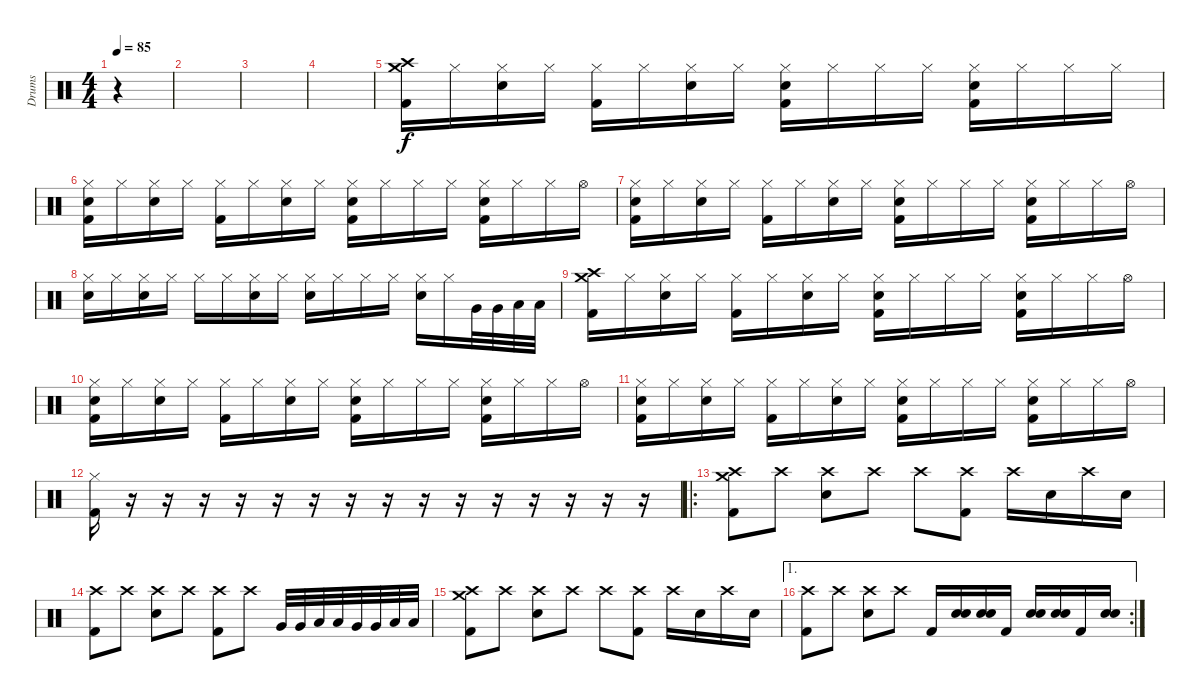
\track ("Drums" "Drums") {instrument percussion}
\staff {score}
\articulation defaults
\ts (4 4)
\tempo 85
\clef neutral
\ks c
r.4{dy f} |
|
|
|
("Crash high (hit)" "Crash medium (hit)" "Kick (hit) 2").16 "Hi-Hat (closed)".16 ("Hi-Hat (closed)" "Electric Snare (hit)").16 "Hi-Hat (closed)".16 ("Hi-Hat (closed)" "Kick (hit) 2").16 "Hi-Hat (closed)".16 ("Hi-Hat (closed)" "Electric Snare (hit)").16 "Hi-Hat (closed)".16 ("Hi-Hat (closed)" "Electric Snare (hit)" "Kick (hit) 2").16 "Hi-Hat (closed)".16 "Hi-Hat (closed)".16 "Hi-Hat (closed)".16 ("Hi-Hat (closed)" "Electric Snare (hit)" "Kick (hit) 2").16 "Hi-Hat (closed)".16 "Hi-Hat (closed)".16 "Hi-Hat (closed)".16 |
("Hi-Hat (closed)" "Electric Snare (hit)" "Kick (hit) 2").16 "Hi-Hat (closed)".16 ("Hi-Hat (closed)" "Electric Snare (hit)").16 "Hi-Hat (closed)".16 ("Hi-Hat (closed)" "Kick (hit) 2").16 "Hi-Hat (closed)".16 ("Hi-Hat (closed)" "Electric Snare (hit)").16 "Hi-Hat (closed)".16 ("Hi-Hat (closed)" "Electric Snare (hit)" "Kick (hit) 2").16 "Hi-Hat (closed)".16 "Hi-Hat (closed)".16 "Hi-Hat (closed)".16 ("Hi-Hat (closed)" "Electric Snare (hit)" "Kick (hit) 2").16 "Hi-Hat (closed)".16 "Hi-Hat (closed)".16 "Hi-Hat (open)".16 |
("Hi-Hat (closed)" "Electric Snare (hit)" "Kick (hit) 2").16 "Hi-Hat (closed)".16 ("Hi-Hat (closed)" "Electric Snare (hit)").16 "Hi-Hat (closed)".16 ("Hi-Hat (closed)" "Kick (hit) 2").16 "Hi-Hat (closed)".16 ("Hi-Hat (closed)" "Electric Snare (hit)").16 "Hi-Hat (closed)".16 ("Hi-Hat (closed)" "Electric Snare (hit)" "Kick (hit) 2").16 "Hi-Hat (closed)".16 "Hi-Hat (closed)".16 "Hi-Hat (closed)".16 ("Hi-Hat (closed)" "Electric Snare (hit)" "Kick (hit) 2").16 "Hi-Hat (closed)".16 "Hi-Hat (closed)".16 "Hi-Hat (open)".16 |
("Hi-Hat (closed)" "Electric Snare (hit)").16 "Hi-Hat (closed)".16 ("Hi-Hat (closed)" "Electric Snare (hit)").16 "Hi-Hat (closed)".16 "Hi-Hat (closed)".16 "Hi-Hat (closed)".16 ("Hi-Hat (closed)" "Electric Snare (hit)").16 "Hi-Hat (closed)".16 ("Hi-Hat (closed)" "Electric Snare (hit)").16 "Hi-Hat (closed)".16 "Hi-Hat (closed)".16 "Hi-Hat (closed)".16 ("Hi-Hat (closed)" "Electric Snare (hit)").16 "Hi-Hat (closed)".16 "Very Low Tom (hit)".32 "Very Low Tom (hit)".32 "Low Tom (hit)".32 "Low Tom (hit)".32 |
("Crash high (hit)" "Crash medium (hit)" "Kick (hit) 2").16 "Hi-Hat (closed)".16 ("Hi-Hat (closed)" "Electric Snare (hit)").16 "Hi-Hat (closed)".16 ("Hi-Hat (closed)" "Kick (hit) 2").16 "Hi-Hat (closed)".16 ("Hi-Hat (closed)" "Electric Snare (hit)").16 "Hi-Hat (closed)".16 ("Hi-Hat (closed)" "Electric Snare (hit)" "Kick (hit) 2").16 "Hi-Hat (closed)".16 "Hi-Hat (closed)".16 "Hi-Hat (closed)".16 ("Hi-Hat (closed)" "Electric Snare (hit)" "Kick (hit) 2").16 "Hi-Hat (closed)".16 "Hi-Hat (closed)".16 "Hi-Hat (open)".16 |
("Hi-Hat (closed)" "Electric Snare (hit)" "Kick (hit) 2").16 "Hi-Hat (closed)".16 ("Hi-Hat (closed)" "Electric Snare (hit)").16 "Hi-Hat (closed)".16 ("Hi-Hat (closed)" "Kick (hit) 2").16 "Hi-Hat (closed)".16 ("Hi-Hat (closed)" "Electric Snare (hit)").16 "Hi-Hat (closed)".16 ("Hi-Hat (closed)" "Electric Snare (hit)" "Kick (hit) 2").16 "Hi-Hat (closed)".16 "Hi-Hat (closed)".16 "Hi-Hat (closed)".16 ("Hi-Hat (closed)" "Electric Snare (hit)" "Kick (hit) 2").16 "Hi-Hat (closed)".16 "Hi-Hat (closed)".16 "Hi-Hat (open)".16 |
("Hi-Hat (closed)" "Electric Snare (hit)" "Kick (hit) 2").16 "Hi-Hat (closed)".16 ("Hi-Hat (closed)" "Electric Snare (hit)").16 "Hi-Hat (closed)".16 ("Hi-Hat (closed)" "Kick (hit) 2").16 "Hi-Hat (closed)".16 ("Hi-Hat (closed)" "Electric Snare (hit)").16 "Hi-Hat (closed)".16 ("Hi-Hat (closed)" "Electric Snare (hit)" "Kick (hit) 2").16 "Hi-Hat (closed)".16 "Hi-Hat (closed)".16 "Hi-Hat (closed)".16 ("Hi-Hat (closed)" "Electric Snare (hit)" "Kick (hit) 2").16 "Hi-Hat (closed)".16 "Hi-Hat (closed)".16 "Hi-Hat (open)".16 |
("Hi-Hat (closed)" "Kick (hit) 2").16 r.16 r.16 r.16 r.16 r.16 r.16 r.16 r.16 r.16 r.16 r.16 r.16 r.16 r.16 r.16 |
\ro
("Crash high (hit)" "Crash medium (hit)" "Kick (hit) 2").8 "Crash high (hit)".8 ("Crash high (hit)" "Electric Snare (hit)").8 "Crash high (hit)".8 "Crash high (hit)".8 ("Crash high (hit)" "Kick (hit) 2").8 "Crash high (hit)".16 "Electric Snare (hit)".16 "Crash high (hit)".16 "Electric Snare (hit)".16 |
("Crash high (hit)" "Kick (hit) 2").8 "Crash high (hit)".8 ("Crash high (hit)" "Electric Snare (hit)").8 "Crash high (hit)".8 ("Crash high (hit)" "Kick (hit) 2").8 "Crash high (hit)".8 "Very Low Tom (hit)".32 "Very Low Tom (hit)".32 "Low Tom (hit)".32 "Low Tom (hit)".32 "Very Low Tom (hit)".32 "Very Low Tom (hit)".32 "Low Floor Tom (hit)".32 "Low Floor Tom (hit)".32 |
("Crash high (hit)" "Crash medium (hit)" "Kick (hit) 2").8 "Crash high (hit)".8 ("Crash high (hit)" "Electric Snare (hit)").8 "Crash high (hit)".8 "Crash high (hit)".8 ("Crash high (hit)" "Kick (hit) 2").8 "Crash high (hit)".16 "Electric Snare (hit)".16 "Crash high (hit)".16 "Electric Snare (hit)".16 |
\ae 1
\rc 2
("Crash high (hit)" "Kick (hit) 2").8 "Crash high (hit)".8 ("Crash high (hit)" "Electric Snare (hit)").8 "Crash high (hit)".8 "Kick (hit) 2".16 ("Electric Snare (hit)" "Electric Snare (hit)").16 ("Electric Snare (hit)" "Electric Snare (hit)").16 "Kick (hit) 2".16 ("Electric Snare (hit)" "Electric Snare (hit)").16 ("Electric Snare (hit)" "Electric Snare (hit)").16 "Kick (hit) 2".16 ("Electric Snare (hit)" "Electric Snare (hit)").16
